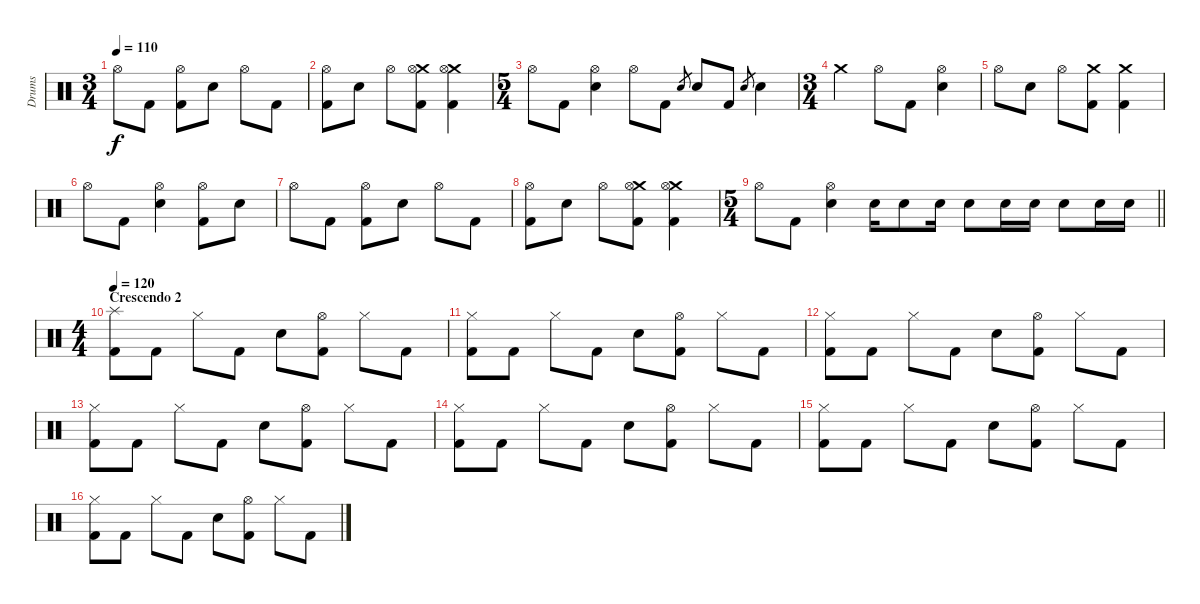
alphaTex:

\track ("Drums" "Drums") {instrument percussion}
\staff {score}
\articulation defaults
\ts (3 4)
\tempo 110
\clef neutral
\ks c "Hi-Hat (open)".8{dy f} "Kick (hit) 2".8
("Hi-Hat (open)" "Kick (hit) 2").8 "Electric Snare (hit)".8 "Hi-Hat (open)".8 "Kick (hit) 2".8 |
("Hi-Hat (open)" "Kick (hit) 2").8 "Electric Snare (hit)".8 "Hi-Hat (open)".8 ("Crash medium (hit)" "Hi-Hat (open)" "Kick (hit) 2").8 ("Crash medium (hit)" "Hi-Hat (open)" "Kick (hit) 2").4 |
\ts (5 4)
"Hi-Hat (open)".8 "Kick (hit) 2".8 ("Hi-Hat (open)" "Electric Snare (hit)").4 "Hi-Hat (open)".8 "Kick (hit) 2".8 "Electric Snare (hit)".8{gr} "Electric Snare (hit)".8 "Kick (hit) 2".8 "Electric Snare (hit)".8{gr} "Electric Snare (hit)".4 |
\ts (3 4)
"Crash medium (hit)".4 "Hi-Hat (open)".8 "Kick (hit) 2".8 ("Hi-Hat (open)" "Electric Snare (hit)").4 |
"Hi-Hat (open)".8 "Electric Snare (hit)".8 "Hi-Hat (open)".8 ("Crash medium (hit)" "Kick (hit) 2").8 ("Crash medium (hit)" "Kick (hit) 2").4 |
"Hi-Hat (open)".8 "Kick (hit) 2".8 ("Hi-Hat (open)" "Electric Snare (hit)").4 ("Hi-Hat (open)" "Kick (hit) 2").8 "Electric Snare (hit)".8 |
"Hi-Hat (open)".8 "Kick (hit) 2".8 ("Hi-Hat (open)" "Kick (hit) 2").8 "Electric Snare (hit)".8 "Hi-Hat (open)".8 "Kick (hit) 2".8 |
("Hi-Hat (open)" "Kick (hit) 2").8 "Electric Snare (hit)".8 "Hi-Hat (open)".8 ("Crash medium (hit)" "Hi-Hat (open)" "Kick (hit) 2").8 ("Crash medium (hit)" "Hi-Hat (open)" "Kick (hit) 2").4 |
\ts (5 4)
\barLineRight lightlight "Hi-Hat (open)".8 "Kick (hit) 2".8
("Hi-Hat (open)" "Electric Snare (hit)").4 "Electric Snare (hit)".16 "Electric Snare (hit)".8 "Electric Snare (hit)".16 "Electric Snare (hit)".8 "Electric Snare (hit)".16 "Electric Snare (hit)".16 "Electric Snare (hit)".8 "Electric Snare (hit)".16 "Electric Snare (hit)".16 |
\ts (4 4)
\section ("" "Crescendo 2")
\tempo 120
("Splash (hit)" "Kick (hit) 2").8 "Kick (hit) 2".8 "Hi-Hat (closed)".8 "Kick (hit) 2".8 "Electric Snare (hit)".8 ("Hi-Hat (open)" "Kick (hit) 2").8 "Hi-Hat (closed)".8 "Kick (hit) 2".8 |
("Hi-Hat (closed)" "Kick (hit) 2").8 "Kick (hit) 2".8 "Hi-Hat (closed)".8 "Kick (hit) 2".8 "Electric Snare (hit)".8 ("Hi-Hat (open)" "Kick (hit) 2").8 "Hi-Hat (closed)".8 "Kick (hit) 2".8 |
("Hi-Hat (closed)" "Kick (hit) 2").8 "Kick (hit) 2".8 "Hi-Hat (closed)".8 "Kick (hit) 2".8 "Electric Snare (hit)".8 ("Hi-Hat (open)" "Kick (hit) 2").8 "Hi-Hat (closed)".8 "Kick (hit) 2".8 |
("Hi-Hat (closed)" "Kick (hit) 2").8 "Kick (hit) 2".8 "Hi-Hat (closed)".8 "Kick (hit) 2".8 "Electric Snare (hit)".8 ("Hi-Hat (open)" "Kick (hit) 2").8 "Hi-Hat (closed)".8 "Kick (hit) 2".8 |
("Hi-Hat (closed)" "Kick (hit) 2").8 "Kick (hit) 2".8 "Hi-Hat (closed)".8 "Kick (hit) 2".8 "Electric Snare (hit)".8 ("Hi-Hat (open)" "Kick (hit) 2").8 "Hi-Hat (closed)".8 "Kick (hit) 2".8 |
("Hi-Hat (closed)" "Kick (hit) 2").8 "Kick (hit) 2".8 "Hi-Hat (closed)".8 "Kick (hit) 2".8 "Electric Snare (hit)".8 ("Hi-Hat (open)" "Kick (hit) 2").8 "Hi-Hat (closed)".8 "Kick (hit) 2".8 |
("Hi-Hat (closed)" "Kick (hit) 2").8 "Kick (hit) 2".8 "Hi-Hat (closed)".8 "Kick (hit) 2".8 "Electric Snare (hit)".8 ("Hi-Hat (open)" "Kick (hit) 2").8 "Hi-Hat (closed)".8 "Kick (hit) 2".8
